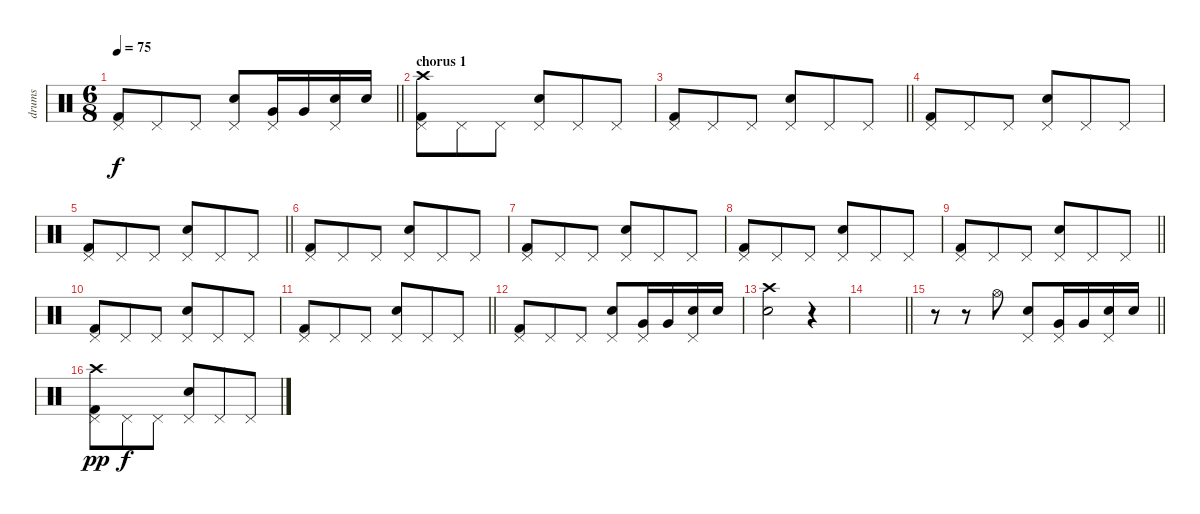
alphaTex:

\track ("drums" "drums") {instrument percussion}
\staff {score}
\articulation defaults
\ts (6 8)
\tempo 75
\clef neutral
\barLineRight lightlight
\ks c
("Kick (hit) 2" "Pedal Hi-Hat (hit)").8{dy f} "Pedal Hi-Hat (hit)".8 "Pedal Hi-Hat (hit)".8 ("Electric Snare (hit)" "Pedal Hi-Hat (hit)").8 ("Very Low Tom (hit)" "Pedal Hi-Hat (hit)").16 "Very Low Tom (hit)".16 ("Electric Snare (hit)" "Pedal Hi-Hat (hit)").16 "Electric Snare (hit)".16 |
\section ("" "chorus 1")
("Kick (hit) 2" "Pedal Hi-Hat (hit)" "Crash high (hit)").8 "Pedal Hi-Hat (hit)".8 "Pedal Hi-Hat (hit)".8 ("Electric Snare (hit)" "Pedal Hi-Hat (hit)").8 "Pedal Hi-Hat (hit)".8 "Pedal Hi-Hat (hit)".8 |
\barLineRight lightlight
("Kick (hit) 2" "Pedal Hi-Hat (hit)").8 "Pedal Hi-Hat (hit)".8 "Pedal Hi-Hat (hit)".8 ("Electric Snare (hit)" "Pedal Hi-Hat (hit)").8 "Pedal Hi-Hat (hit)".8 "Pedal Hi-Hat (hit)".8 |
("Kick (hit) 2" "Pedal Hi-Hat (hit)").8 "Pedal Hi-Hat (hit)".8 "Pedal Hi-Hat (hit)".8 ("Electric Snare (hit)" "Pedal Hi-Hat (hit)").8 "Pedal Hi-Hat (hit)".8 "Pedal Hi-Hat (hit)".8 |
\barLineRight lightlight
("Kick (hit) 2" "Pedal Hi-Hat (hit)").8 "Pedal Hi-Hat (hit)".8 "Pedal Hi-Hat (hit)".8 ("Electric Snare (hit)" "Pedal Hi-Hat (hit)").8 "Pedal Hi-Hat (hit)".8 "Pedal Hi-Hat (hit)".8 |
("Kick (hit) 2" "Pedal Hi-Hat (hit)").8 "Pedal Hi-Hat (hit)".8 "Pedal Hi-Hat (hit)".8 ("Electric Snare (hit)" "Pedal Hi-Hat (hit)").8 "Pedal Hi-Hat (hit)".8 "Pedal Hi-Hat (hit)".8 |
("Kick (hit) 2" "Pedal Hi-Hat (hit)").8 "Pedal Hi-Hat (hit)".8 "Pedal Hi-Hat (hit)".8 ("Electric Snare (hit)" "Pedal Hi-Hat (hit)").8 "Pedal Hi-Hat (hit)".8 "Pedal Hi-Hat (hit)".8 |
("Kick (hit) 2" "Pedal Hi-Hat (hit)").8 "Pedal Hi-Hat (hit)".8 "Pedal Hi-Hat (hit)".8 ("Electric Snare (hit)" "Pedal Hi-Hat (hit)").8 "Pedal Hi-Hat (hit)".8 "Pedal Hi-Hat (hit)".8 |
\barLineRight lightlight
("Kick (hit) 2" "Pedal Hi-Hat (hit)").8 "Pedal Hi-Hat (hit)".8 "Pedal Hi-Hat (hit)".8 ("Electric Snare (hit)" "Pedal Hi-Hat (hit)").8 "Pedal Hi-Hat (hit)".8 "Pedal Hi-Hat (hit)".8 |
("Kick (hit) 2" "Pedal Hi-Hat (hit)").8 "Pedal Hi-Hat (hit)".8 "Pedal Hi-Hat (hit)".8 ("Electric Snare (hit)" "Pedal Hi-Hat (hit)").8 "Pedal Hi-Hat (hit)".8 "Pedal Hi-Hat (hit)".8 |
\barLineRight lightlight
("Kick (hit) 2" "Pedal Hi-Hat (hit)").8 "Pedal Hi-Hat (hit)".8 "Pedal Hi-Hat (hit)".8 ("Electric Snare (hit)" "Pedal Hi-Hat (hit)").8 "Pedal Hi-Hat (hit)".8 "Pedal Hi-Hat (hit)".8 |
("Kick (hit) 2" "Pedal Hi-Hat (hit)").8 "Pedal Hi-Hat (hit)".8 "Pedal Hi-Hat (hit)".8 ("Electric Snare (hit)" "Pedal Hi-Hat (hit)").8 ("Very Low Tom (hit)" "Pedal Hi-Hat (hit)").16 "Very Low Tom (hit)".16 ("Electric Snare (hit)" "Pedal Hi-Hat (hit)").16 "Electric Snare (hit)".16 |
("Electric Snare (hit)" "Crash high (hit)").2 r.4 |
\barLineRight lightlight
|
\barLineRight lightlight
r.8 r.8 "Hi-Hat (open)".8 ("Electric Snare (hit)" "Pedal Hi-Hat (hit)").8 ("Very Low Tom (hit)" "Pedal Hi-Hat (hit)").16 "Very Low Tom (hit)".16 ("Electric Snare (hit)" "Pedal Hi-Hat (hit)").16 "Electric Snare (hit)".16 |
("Kick (hit) 2" "Pedal Hi-Hat (hit)" "Crash high (hit)").8{dy pp} "Pedal Hi-Hat (hit)".8{dy f} "Pedal Hi-Hat (hit)".8 ("Electric Snare (hit)" "Pedal Hi-Hat (hit)").8 "Pedal Hi-Hat (hit)".8 "Pedal Hi-Hat (hit)".8
